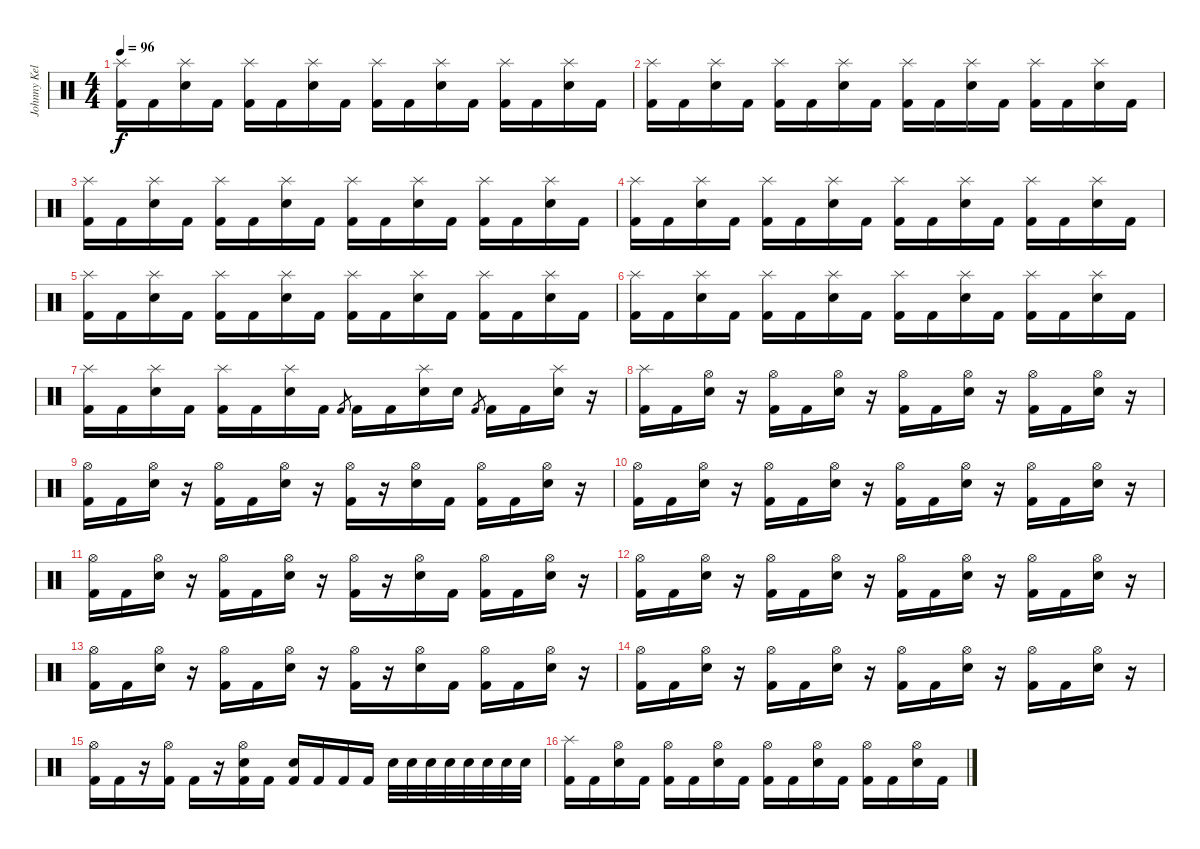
\track ("Johnny Kelly - Drums" "Johnny Kel") {instrument percussion}
\staff {score}
\articulation defaults
\ts (4 4)
\tempo 96
\clef neutral
\ks c
("Splash (hit)" "Kick (hit) 2").16{dy f} "Kick (hit) 2".16 ("Splash (hit)" "Electric Snare (hit)").16 "Kick (hit) 2".16 ("Splash (hit)" "Kick (hit) 2").16 "Kick (hit) 2".16 ("Splash (hit)" "Electric Snare (hit)").16 "Kick (hit) 2".16 ("Splash (hit)" "Kick (hit) 2").16 "Kick (hit) 2".16 ("Splash (hit)" "Electric Snare (hit)").16 "Kick (hit) 2".16 ("Splash (hit)" "Kick (hit) 2").16 "Kick (hit) 2".16 ("Splash (hit)" "Electric Snare (hit)").16 "Kick (hit) 2".16 |
("Splash (hit)" "Kick (hit) 2").16 "Kick (hit) 2".16 ("Splash (hit)" "Electric Snare (hit)").16 "Kick (hit) 2".16 ("Splash (hit)" "Kick (hit) 2").16 "Kick (hit) 2".16 ("Splash (hit)" "Electric Snare (hit)").16 "Kick (hit) 2".16 ("Splash (hit)" "Kick (hit) 2").16 "Kick (hit) 2".16 ("Splash (hit)" "Electric Snare (hit)").16 "Kick (hit) 2".16 ("Splash (hit)" "Kick (hit) 2").16 "Kick (hit) 2".16 ("Splash (hit)" "Electric Snare (hit)").16 "Kick (hit) 2".16 |
("Splash (hit)" "Kick (hit) 2").16 "Kick (hit) 2".16 ("Splash (hit)" "Electric Snare (hit)").16 "Kick (hit) 2".16 ("Splash (hit)" "Kick (hit) 2").16 "Kick (hit) 2".16 ("Splash (hit)" "Electric Snare (hit)").16 "Kick (hit) 2".16 ("Splash (hit)" "Kick (hit) 2").16 "Kick (hit) 2".16 ("Splash (hit)" "Electric Snare (hit)").16 "Kick (hit) 2".16 ("Splash (hit)" "Kick (hit) 2").16 "Kick (hit) 2".16 ("Splash (hit)" "Electric Snare (hit)").16 "Kick (hit) 2".16 |
("Splash (hit)" "Kick (hit) 2").16 "Kick (hit) 2".16 ("Splash (hit)" "Electric Snare (hit)").16 "Kick (hit) 2".16 ("Splash (hit)" "Kick (hit) 2").16 "Kick (hit) 2".16 ("Splash (hit)" "Electric Snare (hit)").16 "Kick (hit) 2".16 ("Splash (hit)" "Kick (hit) 2").16 "Kick (hit) 2".16 ("Splash (hit)" "Electric Snare (hit)").16 "Kick (hit) 2".16 ("Splash (hit)" "Kick (hit) 2").16 "Kick (hit) 2".16 ("Splash (hit)" "Electric Snare (hit)").16 "Kick (hit) 2".16 |
("Splash (hit)" "Kick (hit) 2").16 "Kick (hit) 2".16 ("Splash (hit)" "Electric Snare (hit)").16 "Kick (hit) 2".16 ("Splash (hit)" "Kick (hit) 2").16 "Kick (hit) 2".16 ("Splash (hit)" "Electric Snare (hit)").16 "Kick (hit) 2".16 ("Splash (hit)" "Kick (hit) 2").16 "Kick (hit) 2".16 ("Splash (hit)" "Electric Snare (hit)").16 "Kick (hit) 2".16 ("Splash (hit)" "Kick (hit) 2").16 "Kick (hit) 2".16 ("Splash (hit)" "Electric Snare (hit)").16 "Kick (hit) 2".16 |
("Splash (hit)" "Kick (hit) 2").16 "Kick (hit) 2".16 ("Splash (hit)" "Electric Snare (hit)").16 "Kick (hit) 2".16 ("Splash (hit)" "Kick (hit) 2").16 "Kick (hit) 2".16 ("Splash (hit)" "Electric Snare (hit)").16 "Kick (hit) 2".16 ("Splash (hit)" "Kick (hit) 2").16 "Kick (hit) 2".16 ("Splash (hit)" "Electric Snare (hit)").16 "Kick (hit) 2".16 ("Splash (hit)" "Kick (hit) 2").16 "Kick (hit) 2".16 ("Splash (hit)" "Electric Snare (hit)").16 "Kick (hit) 2".16 |
("Splash (hit)" "Kick (hit) 2").16 "Kick (hit) 2".16 ("Splash (hit)" "Electric Snare (hit)").16 "Kick (hit) 2".16 ("Splash (hit)" "Kick (hit) 2").16 "Kick (hit) 2".16 ("Splash (hit)" "Electric Snare (hit)").16 "Kick (hit) 2".16 "Kick (hit) 2".8{gr} "Kick (hit) 2".16 "Kick (hit) 2".16 ("Splash (hit)" "Electric Snare (hit)").16 "Electric Snare (hit)".16 "Kick (hit) 2".8{gr} "Kick (hit) 2".16 "Kick (hit) 2".16 ("Splash (hit)" "Electric Snare (hit)").16 r.16 |
("Splash (hit)" "Kick (hit) 2").16 "Kick (hit) 2".16 ("Hi-Hat (open)" "Electric Snare (hit)").16 r.16 ("Hi-Hat (open)" "Kick (hit) 2").16 "Kick (hit) 2".16 ("Hi-Hat (open)" "Electric Snare (hit)").16 r.16 ("Hi-Hat (open)" "Kick (hit) 2").16 "Kick (hit) 2".16 ("Hi-Hat (open)" "Electric Snare (hit)").16 r.16 ("Hi-Hat (open)" "Kick (hit) 2").16 "Kick (hit) 2".16 ("Hi-Hat (open)" "Electric Snare (hit)").16 r.16 |
("Hi-Hat (open)" "Kick (hit) 2").16 "Kick (hit) 2".16 ("Hi-Hat (open)" "Electric Snare (hit)").16 r.16 ("Hi-Hat (open)" "Kick (hit) 2").16 "Kick (hit) 2".16 ("Hi-Hat (open)" "Electric Snare (hit)").16 r.16 ("Hi-Hat (open)" "Kick (hit) 2").16 r.16 ("Hi-Hat (open)" "Electric Snare (hit)").16 "Kick (hit) 2".16 ("Hi-Hat (open)" "Kick (hit) 2").16 "Kick (hit) 2".16 ("Hi-Hat (open)" "Electric Snare (hit)").16 r.16 |
("Hi-Hat (open)" "Kick (hit) 2").16 "Kick (hit) 2".16 ("Hi-Hat (open)" "Electric Snare (hit)").16 r.16 ("Hi-Hat (open)" "Kick (hit) 2").16 "Kick (hit) 2".16 ("Hi-Hat (open)" "Electric Snare (hit)").16 r.16 ("Hi-Hat (open)" "Kick (hit) 2").16 "Kick (hit) 2".16 ("Hi-Hat (open)" "Electric Snare (hit)").16 r.16 ("Hi-Hat (open)" "Kick (hit) 2").16 "Kick (hit) 2".16 ("Hi-Hat (open)" "Electric Snare (hit)").16 r.16 |
("Hi-Hat (open)" "Kick (hit) 2").16 "Kick (hit) 2".16 ("Hi-Hat (open)" "Electric Snare (hit)").16 r.16 ("Hi-Hat (open)" "Kick (hit) 2").16 "Kick (hit) 2".16 ("Hi-Hat (open)" "Electric Snare (hit)").16 r.16 ("Hi-Hat (open)" "Kick (hit) 2").16 r.16 ("Hi-Hat (open)" "Electric Snare (hit)").16 "Kick (hit) 2".16 ("Hi-Hat (open)" "Kick (hit) 2").16 "Kick (hit) 2".16 ("Hi-Hat (open)" "Electric Snare (hit)").16 r.16 |
("Hi-Hat (open)" "Kick (hit) 2").16 "Kick (hit) 2".16 ("Hi-Hat (open)" "Electric Snare (hit)").16 r.16 ("Hi-Hat (open)" "Kick (hit) 2").16 "Kick (hit) 2".16 ("Hi-Hat (open)" "Electric Snare (hit)").16 r.16 ("Hi-Hat (open)" "Kick (hit) 2").16 "Kick (hit) 2".16 ("Hi-Hat (open)" "Electric Snare (hit)").16 r.16 ("Hi-Hat (open)" "Kick (hit) 2").16 "Kick (hit) 2".16 ("Hi-Hat (open)" "Electric Snare (hit)").16 r.16 |
("Hi-Hat (open)" "Kick (hit) 2").16 "Kick (hit) 2".16 ("Hi-Hat (open)" "Electric Snare (hit)").16 r.16 ("Hi-Hat (open)" "Kick (hit) 2").16 "Kick (hit) 2".16 ("Hi-Hat (open)" "Electric Snare (hit)").16 r.16 ("Hi-Hat (open)" "Kick (hit) 2").16 r.16 ("Hi-Hat (open)" "Electric Snare (hit)").16 "Kick (hit) 2".16 ("Hi-Hat (open)" "Kick (hit) 2").16 "Kick (hit) 2".16 ("Hi-Hat (open)" "Electric Snare (hit)").16 r.16 |
("Hi-Hat (open)" "Kick (hit) 2").16 "Kick (hit) 2".16 ("Hi-Hat (open)" "Electric Snare (hit)").16 r.16 ("Hi-Hat (open)" "Kick (hit) 2").16 "Kick (hit) 2".16 ("Hi-Hat (open)" "Electric Snare (hit)").16 r.16 ("Hi-Hat (open)" "Kick (hit) 2").16 "Kick (hit) 2".16 ("Hi-Hat (open)" "Electric Snare (hit)").16 r.16 ("Hi-Hat (open)" "Kick (hit) 2").16 "Kick (hit) 2".16 ("Hi-Hat (open)" "Electric Snare (hit)").16 r.16 |
("Hi-Hat (open)" "Kick (hit) 2").16 "Kick (hit) 2".16 r.16 ("Hi-Hat (open)" "Kick (hit) 2").16 "Kick (hit) 2".16 r.16 ("Hi-Hat (open)" "Electric Snare (hit)" "Kick (hit) 2").16 "Kick (hit) 2".16 ("Electric Snare (hit)" "Kick (hit) 2").16 "Kick (hit) 2".16 "Kick (hit) 2".16 "Kick (hit) 2".16 "Electric Snare (hit)".32 "Electric Snare (hit)".32 "Electric Snare (hit)".32 "Electric Snare (hit)".32 "Electric Snare (hit)".32 "Electric Snare (hit)".32 "Electric Snare (hit)".32 "Electric Snare (hit)".32 |
("Splash (hit)" "Kick (hit) 2").16 "Kick (hit) 2".16 ("Hi-Hat (open)" "Electric Snare (hit)").16 "Kick (hit) 2".16 ("Hi-Hat (open)" "Kick (hit) 2").16 "Kick (hit) 2".16 ("Hi-Hat (open)" "Electric Snare (hit)").16 "Kick (hit) 2".16 ("Hi-Hat (open)" "Kick (hit) 2").16 "Kick (hit) 2".16 ("Hi-Hat (open)" "Electric Snare (hit)").16 "Kick (hit) 2".16 ("Hi-Hat (open)" "Kick (hit) 2").16 "Kick (hit) 2".16 ("Hi-Hat (open)" "Electric Snare (hit)").16 "Kick (hit) 2".16
